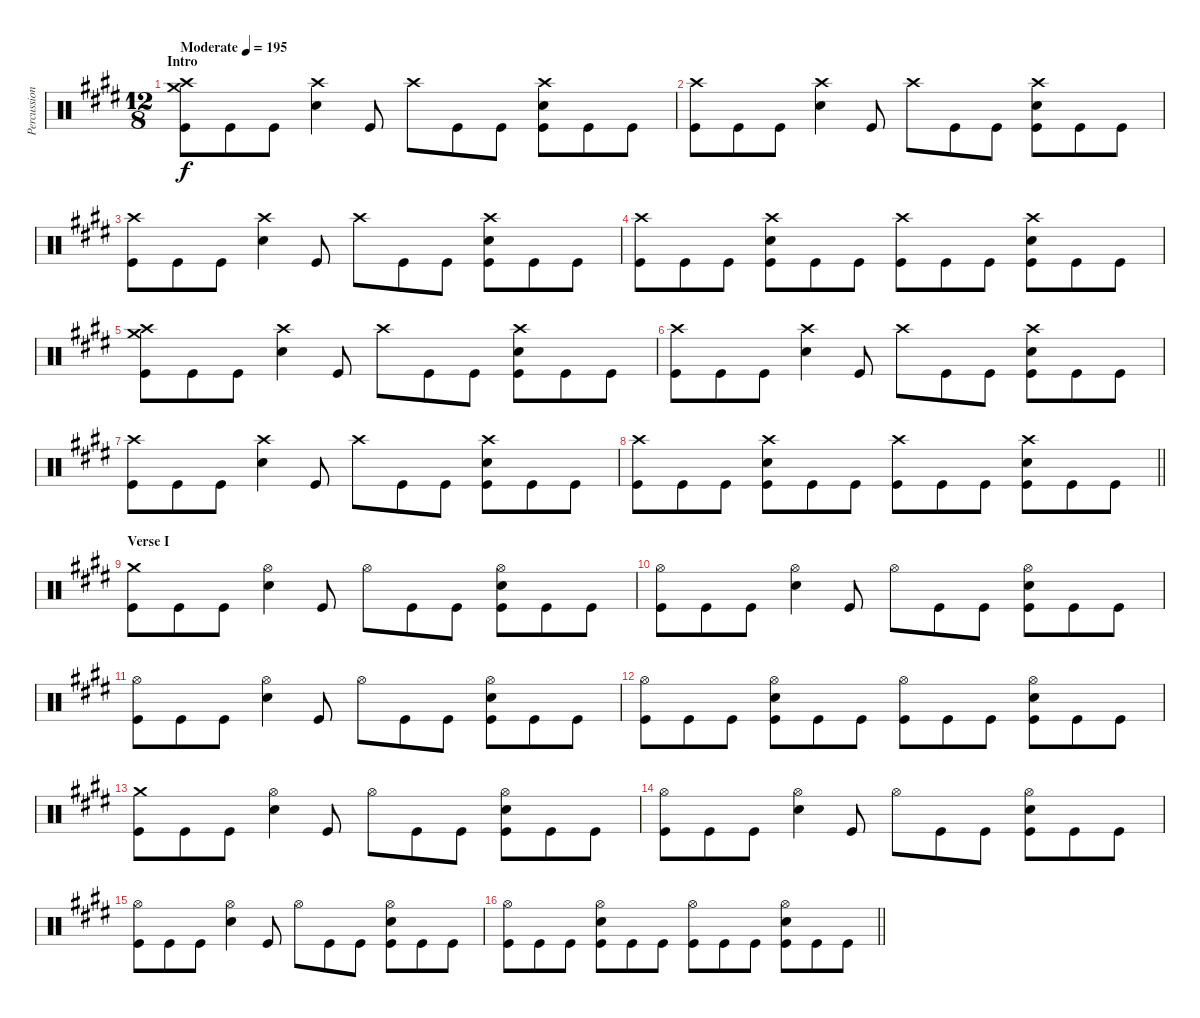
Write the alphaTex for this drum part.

\track ("Percussion" "Percussion") {instrument percussion}
\staff {score}
\articulation defaults
\ts (12 8)
\section ("" "Intro")
\tempo (195 "Moderate")
\clef neutral
\ks e
("Crash high (hit)" "Crash medium (hit)" "Kick (hit)").8{dy f} "Kick (hit)".8 "Kick (hit)".8 ("Crash high (hit)" "Electric Snare (hit)").4 "Kick (hit)".8 "Crash high (hit)".8 "Kick (hit)".8 "Kick (hit)".8 ("Crash high (hit)" "Electric Snare (hit)" "Kick (hit)").8 "Kick (hit)".8 "Kick (hit)".8 |
("Crash high (hit)" "Kick (hit)").8 "Kick (hit)".8 "Kick (hit)".8 ("Crash high (hit)" "Electric Snare (hit)").4 "Kick (hit)".8 "Crash high (hit)".8 "Kick (hit)".8 "Kick (hit)".8 ("Crash high (hit)" "Electric Snare (hit)" "Kick (hit)").8 "Kick (hit)".8 "Kick (hit)".8 |
("Crash high (hit)" "Kick (hit)").8 "Kick (hit)".8 "Kick (hit)".8 ("Crash high (hit)" "Electric Snare (hit)").4 "Kick (hit)".8 "Crash high (hit)".8 "Kick (hit)".8 "Kick (hit)".8 ("Crash high (hit)" "Electric Snare (hit)" "Kick (hit)").8 "Kick (hit)".8 "Kick (hit)".8 |
("Crash high (hit)" "Kick (hit)").8 "Kick (hit)".8 "Kick (hit)".8 ("Crash high (hit)" "Electric Snare (hit)" "Kick (hit)").8 "Kick (hit)".8 "Kick (hit)".8 ("Crash high (hit)" "Kick (hit)").8 "Kick (hit)".8 "Kick (hit)".8 ("Crash high (hit)" "Electric Snare (hit)" "Kick (hit)").8 "Kick (hit)".8 "Kick (hit)".8 |
("Crash high (hit)" "Crash medium (hit)" "Kick (hit)").8 "Kick (hit)".8 "Kick (hit)".8 ("Crash high (hit)" "Electric Snare (hit)").4 "Kick (hit)".8 "Crash high (hit)".8 "Kick (hit)".8 "Kick (hit)".8 ("Crash high (hit)" "Electric Snare (hit)" "Kick (hit)").8 "Kick (hit)".8 "Kick (hit)".8 |
("Crash high (hit)" "Kick (hit)").8 "Kick (hit)".8 "Kick (hit)".8 ("Crash high (hit)" "Electric Snare (hit)").4 "Kick (hit)".8 "Crash high (hit)".8 "Kick (hit)".8 "Kick (hit)".8 ("Crash high (hit)" "Electric Snare (hit)" "Kick (hit)").8 "Kick (hit)".8 "Kick (hit)".8 |
("Crash high (hit)" "Kick (hit)").8 "Kick (hit)".8 "Kick (hit)".8 ("Crash high (hit)" "Electric Snare (hit)").4 "Kick (hit)".8 "Crash high (hit)".8 "Kick (hit)".8 "Kick (hit)".8 ("Crash high (hit)" "Electric Snare (hit)" "Kick (hit)").8 "Kick (hit)".8 "Kick (hit)".8 |
\barLineRight lightlight
("Crash high (hit)" "Kick (hit)").8 "Kick (hit)".8 "Kick (hit)".8 ("Crash high (hit)" "Electric Snare (hit)" "Kick (hit)").8 "Kick (hit)".8 "Kick (hit)".8 ("Crash high (hit)" "Kick (hit)").8 "Kick (hit)".8 "Kick (hit)".8 ("Crash high (hit)" "Electric Snare (hit)" "Kick (hit)").8 "Kick (hit)".8 "Kick (hit)".8 |
\section ("" "Verse I")
("Crash medium (hit)" "Kick (hit)").8 "Kick (hit)".8 "Kick (hit)".8 ("Hi-Hat (open)" "Electric Snare (hit)").4 "Kick (hit)".8 "Hi-Hat (open)".8 "Kick (hit)".8 "Kick (hit)".8 ("Hi-Hat (open)" "Electric Snare (hit)" "Kick (hit)").8 "Kick (hit)".8 "Kick (hit)".8 |
("Hi-Hat (open)" "Kick (hit)").8 "Kick (hit)".8 "Kick (hit)".8 ("Hi-Hat (open)" "Electric Snare (hit)").4 "Kick (hit)".8 "Hi-Hat (open)".8 "Kick (hit)".8 "Kick (hit)".8 ("Hi-Hat (open)" "Electric Snare (hit)" "Kick (hit)").8 "Kick (hit)".8 "Kick (hit)".8 |
("Hi-Hat (open)" "Kick (hit)").8 "Kick (hit)".8 "Kick (hit)".8 ("Hi-Hat (open)" "Electric Snare (hit)").4 "Kick (hit)".8 "Hi-Hat (open)".8 "Kick (hit)".8 "Kick (hit)".8 ("Hi-Hat (open)" "Electric Snare (hit)" "Kick (hit)").8 "Kick (hit)".8 "Kick (hit)".8 |
("Hi-Hat (open)" "Kick (hit)").8 "Kick (hit)".8 "Kick (hit)".8 ("Hi-Hat (open)" "Electric Snare (hit)" "Kick (hit)").8 "Kick (hit)".8 "Kick (hit)".8 ("Hi-Hat (open)" "Kick (hit)").8 "Kick (hit)".8 "Kick (hit)".8 ("Hi-Hat (open)" "Electric Snare (hit)" "Kick (hit)").8 "Kick (hit)".8 "Kick (hit)".8 |
("Crash medium (hit)" "Kick (hit)").8 "Kick (hit)".8 "Kick (hit)".8 ("Hi-Hat (open)" "Electric Snare (hit)").4 "Kick (hit)".8 "Hi-Hat (open)".8 "Kick (hit)".8 "Kick (hit)".8 ("Hi-Hat (open)" "Electric Snare (hit)" "Kick (hit)").8 "Kick (hit)".8 "Kick (hit)".8 |
("Hi-Hat (open)" "Kick (hit)").8 "Kick (hit)".8 "Kick (hit)".8 ("Hi-Hat (open)" "Electric Snare (hit)").4 "Kick (hit)".8 "Hi-Hat (open)".8 "Kick (hit)".8 "Kick (hit)".8 ("Hi-Hat (open)" "Electric Snare (hit)" "Kick (hit)").8 "Kick (hit)".8 "Kick (hit)".8 |
("Hi-Hat (open)" "Kick (hit)").8 "Kick (hit)".8 "Kick (hit)".8 ("Hi-Hat (open)" "Electric Snare (hit)").4 "Kick (hit)".8 "Hi-Hat (open)".8 "Kick (hit)".8 "Kick (hit)".8 ("Hi-Hat (open)" "Electric Snare (hit)" "Kick (hit)").8 "Kick (hit)".8 "Kick (hit)".8 |
\barLineRight lightlight
("Hi-Hat (open)" "Kick (hit)").8 "Kick (hit)".8 "Kick (hit)".8 ("Hi-Hat (open)" "Electric Snare (hit)" "Kick (hit)").8 "Kick (hit)".8 "Kick (hit)".8 ("Hi-Hat (open)" "Kick (hit)").8 "Kick (hit)".8 "Kick (hit)".8 ("Hi-Hat (open)" "Electric Snare (hit)" "Kick (hit)").8 "Kick (hit)".8 "Kick (hit)".8
